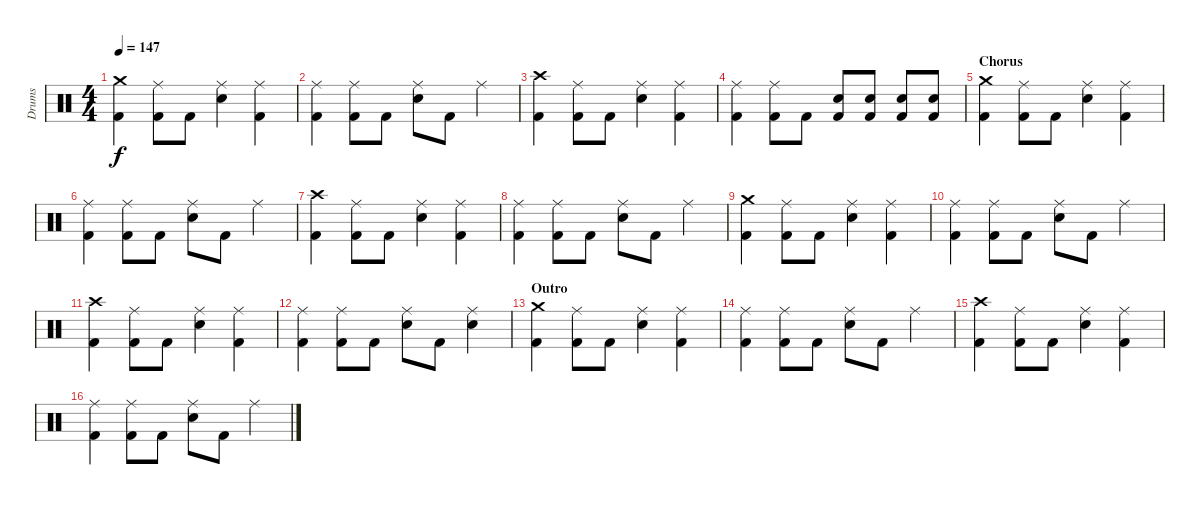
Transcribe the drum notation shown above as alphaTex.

\track ("Drums" "Drums") {instrument percussion}
\staff {score}
\articulation defaults
\ts (4 4)
\tempo 147
\clef neutral
\ks c
("Crash medium (hit)" "Kick (hit) 2").4{dy f} ("Ride (middle)" "Kick (hit) 2").8 "Kick (hit) 2".8 ("Ride (middle)" "Snare (hit) 2").4 ("Ride (middle)" "Kick (hit) 2").4 |
("Ride (middle)" "Kick (hit) 2").4 ("Ride (middle)" "Kick (hit) 2").8 "Kick (hit) 2".8 ("Ride (middle)" "Snare (hit) 2").8 "Kick (hit) 2".8 "Ride (middle)".4 |
("Crash high (hit)" "Kick (hit) 2").4 ("Ride (middle)" "Kick (hit) 2").8 "Kick (hit) 2".8 ("Ride (middle)" "Snare (hit) 2").4 ("Ride (middle)" "Kick (hit) 2").4 |
("Ride (middle)" "Kick (hit) 2").4 ("Ride (middle)" "Kick (hit) 2").8 "Kick (hit) 2".8 ("Snare (hit) 2" "Kick (hit) 2").8 ("Snare (hit) 2" "Kick (hit) 2").8 ("Snare (hit) 2" "Kick (hit) 2").8 ("Snare (hit) 2" "Kick (hit) 2").8 |
\section ("" "Chorus")
("Crash medium (hit)" "Kick (hit) 2").4 ("Ride (middle)" "Kick (hit) 2").8 "Kick (hit) 2".8 ("Ride (middle)" "Snare (hit) 2").4 ("Ride (middle)" "Kick (hit) 2").4 |
("Ride (middle)" "Kick (hit) 2").4 ("Ride (middle)" "Kick (hit) 2").8 "Kick (hit) 2".8 ("Ride (middle)" "Snare (hit) 2").8 "Kick (hit) 2".8 "Ride (middle)".4 |
("Crash high (hit)" "Kick (hit) 2").4 ("Ride (middle)" "Kick (hit) 2").8 "Kick (hit) 2".8 ("Ride (middle)" "Snare (hit) 2").4 ("Ride (middle)" "Kick (hit) 2").4 |
("Ride (middle)" "Kick (hit) 2").4 ("Ride (middle)" "Kick (hit) 2").8 "Kick (hit) 2".8 ("Ride (middle)" "Snare (hit) 2").8 "Kick (hit) 2".8 "Ride (middle)".4 |
("Crash medium (hit)" "Kick (hit) 2").4 ("Ride (middle)" "Kick (hit) 2").8 "Kick (hit) 2".8 ("Ride (middle)" "Snare (hit) 2").4 ("Ride (middle)" "Kick (hit) 2").4 |
("Ride (middle)" "Kick (hit) 2").4 ("Ride (middle)" "Kick (hit) 2").8 "Kick (hit) 2".8 ("Ride (middle)" "Snare (hit) 2").8 "Kick (hit) 2".8 "Ride (middle)".4 |
("Crash high (hit)" "Kick (hit) 2").4 ("Ride (middle)" "Kick (hit) 2").8 "Kick (hit) 2".8 ("Ride (middle)" "Snare (hit) 2").4 ("Ride (middle)" "Kick (hit) 2").4 |
("Ride (middle)" "Kick (hit) 2").4 ("Ride (middle)" "Kick (hit) 2").8 "Kick (hit) 2".8 ("Ride (middle)" "Snare (hit) 2").8 "Kick (hit) 2".8 ("Ride (middle)" "Snare (hit) 2").4 |
\section ("" "Outro")
("Crash medium (hit)" "Kick (hit) 2").4 ("Ride (middle)" "Kick (hit) 2").8 "Kick (hit) 2".8 ("Ride (middle)" "Snare (hit) 2").4 ("Ride (middle)" "Kick (hit) 2").4 |
("Ride (middle)" "Kick (hit) 2").4 ("Ride (middle)" "Kick (hit) 2").8 "Kick (hit) 2".8 ("Ride (middle)" "Snare (hit) 2").8 "Kick (hit) 2".8 "Ride (middle)".4 |
("Crash high (hit)" "Kick (hit) 2").4 ("Ride (middle)" "Kick (hit) 2").8 "Kick (hit) 2".8 ("Ride (middle)" "Snare (hit) 2").4 ("Ride (middle)" "Kick (hit) 2").4 |
("Ride (middle)" "Kick (hit) 2").4 ("Ride (middle)" "Kick (hit) 2").8 "Kick (hit) 2".8 ("Ride (middle)" "Snare (hit) 2").8 "Kick (hit) 2".8 "Ride (middle)".4
